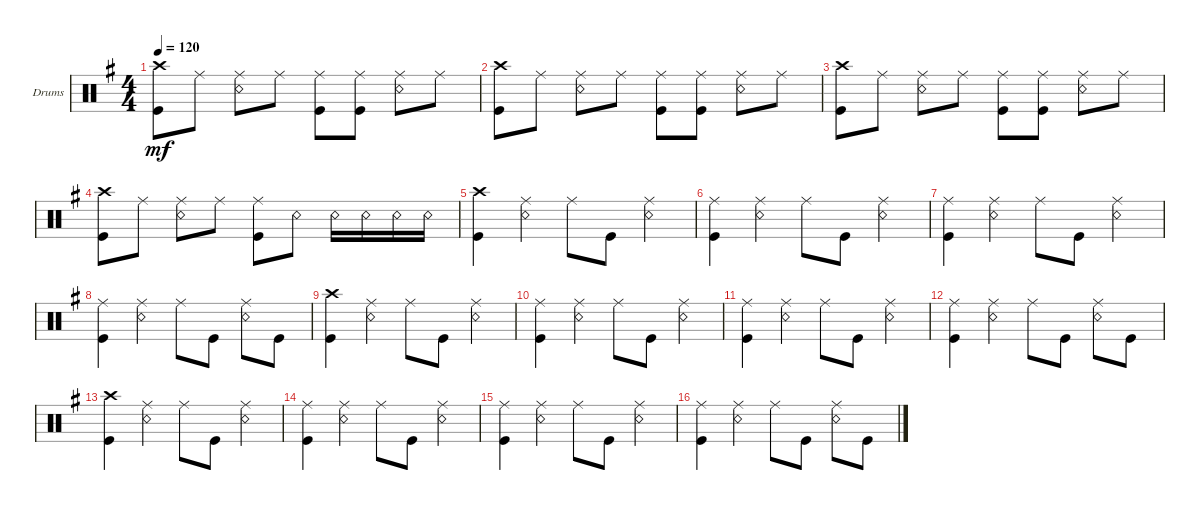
\defaultSystemsLayout 4
\bracketExtendMode groupsimilarinstruments
\firstSystemTrackNameOrientation horizontal
\otherSystemsTrackNameOrientation horizontal
\track ("Drumkit" "Drums") {instrument percussion}
\staff {score}
\articulation defaults
\ts (4 4)
\tempo 120
\clef neutral
\ks eminor
("Kick (hit)" "Crash high (hit)").8{dy mf} "Ride (middle)".8 ("Ride (middle)" "Snare (rim shot)").8 "Ride (middle)".8 ("Ride (middle)" "Kick (hit)").8 ("Kick (hit)" "Ride (middle)").8 ("Ride (middle)" "Snare (rim shot)").8 "Ride (middle)".8 |
("Kick (hit)" "Crash high (hit)").8 "Ride (middle)".8 ("Ride (middle)" "Snare (rim shot)").8 "Ride (middle)".8 ("Ride (middle)" "Kick (hit)").8 ("Kick (hit)" "Ride (middle)").8 ("Ride (middle)" "Snare (rim shot)").8 "Ride (middle)".8 |
("Kick (hit)" "Crash high (hit)").8 "Ride (middle)".8 ("Ride (middle)" "Snare (rim shot)").8 "Ride (middle)".8 ("Ride (middle)" "Kick (hit)").8 ("Kick (hit)" "Ride (middle)").8 ("Ride (middle)" "Snare (rim shot)").8 "Ride (middle)".8 |
("Kick (hit)" "Crash high (hit)").8 "Ride (middle)".8 ("Ride (middle)" "Snare (rim shot)").8 "Ride (middle)".8 ("Ride (middle)" "Kick (hit)").8 "Snare (rim shot)".8 "Snare (rim shot)".16 "Snare (rim shot)".16 "Snare (rim shot)".16 "Snare (rim shot)".16 |
("Kick (hit)" "Crash high (hit)").4 ("Snare (rim shot)" "Ride (middle)").4 "Ride (middle)".8 "Kick (hit)".8 ("Snare (rim shot)" "Ride (middle)").4 |
("Kick (hit)" "Ride (middle)").4 ("Snare (rim shot)" "Ride (middle)").4 "Ride (middle)".8 "Kick (hit)".8 ("Snare (rim shot)" "Ride (middle)").4 |
("Kick (hit)" "Ride (middle)").4 ("Snare (rim shot)" "Ride (middle)").4 "Ride (middle)".8 "Kick (hit)".8 ("Snare (rim shot)" "Ride (middle)").4 |
("Kick (hit)" "Ride (middle)").4 ("Snare (rim shot)" "Ride (middle)").4 "Ride (middle)".8 "Kick (hit)".8 ("Snare (rim shot)" "Ride (middle)").8 "Kick (hit)".8 |
("Kick (hit)" "Crash high (hit)").4 ("Snare (rim shot)" "Ride (middle)").4 "Ride (middle)".8 "Kick (hit)".8 ("Snare (rim shot)" "Ride (middle)").4 |
("Kick (hit)" "Ride (middle)").4 ("Snare (rim shot)" "Ride (middle)").4 "Ride (middle)".8 "Kick (hit)".8 ("Snare (rim shot)" "Ride (middle)").4 |
("Kick (hit)" "Ride (middle)").4 ("Snare (rim shot)" "Ride (middle)").4 "Ride (middle)".8 "Kick (hit)".8 ("Snare (rim shot)" "Ride (middle)").4 |
("Kick (hit)" "Ride (middle)").4 ("Snare (rim shot)" "Ride (middle)").4 "Ride (middle)".8 "Kick (hit)".8 ("Snare (rim shot)" "Ride (middle)").8 "Kick (hit)".8 |
("Kick (hit)" "Crash high (hit)").4 ("Snare (rim shot)" "Ride (middle)").4 "Ride (middle)".8 "Kick (hit)".8 ("Snare (rim shot)" "Ride (middle)").4 |
("Kick (hit)" "Ride (middle)").4 ("Snare (rim shot)" "Ride (middle)").4 "Ride (middle)".8 "Kick (hit)".8 ("Snare (rim shot)" "Ride (middle)").4 |
("Kick (hit)" "Ride (middle)").4 ("Snare (rim shot)" "Ride (middle)").4 "Ride (middle)".8 "Kick (hit)".8 ("Snare (rim shot)" "Ride (middle)").4 |
("Kick (hit)" "Ride (middle)").4 ("Snare (rim shot)" "Ride (middle)").4 "Ride (middle)".8 "Kick (hit)".8 ("Snare (rim shot)" "Ride (middle)").8 "Kick (hit)".8
